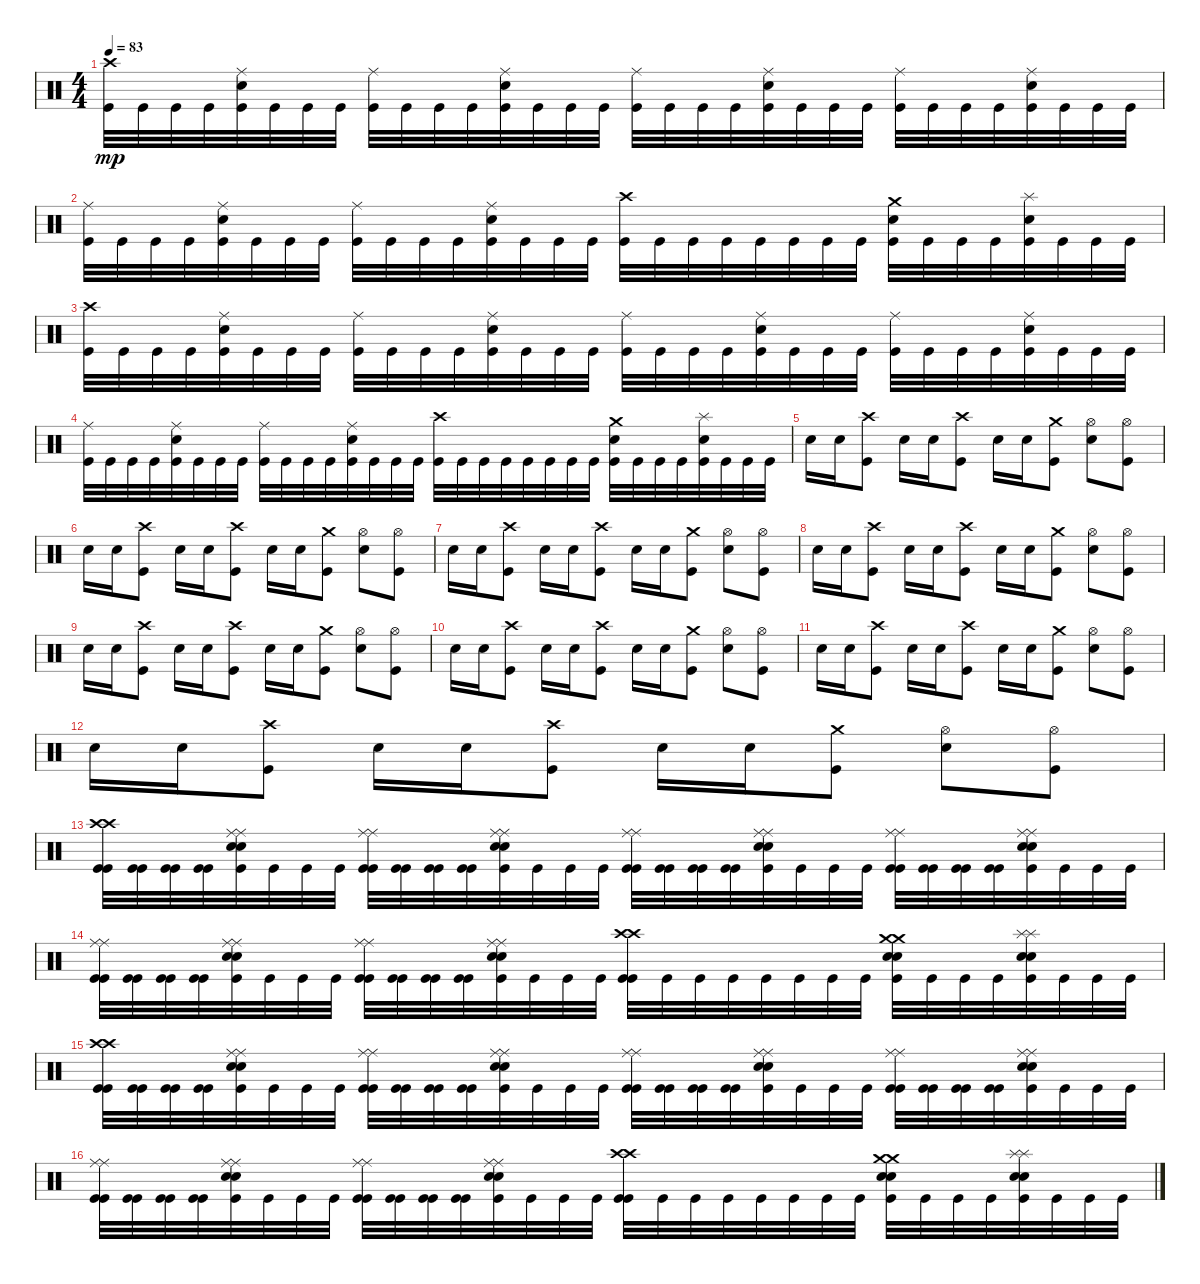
\track "" {instrument percussion}
\staff {score}
\articulation defaults
\ts (4 4)
\tempo 83
\clef neutral
\ks c
("Kick (hit)" "Crash high (hit)").32{dy mp} "Kick (hit)".32 "Kick (hit)".32 "Kick (hit)".32 ("Snare (hit) 2" "Ride (middle)" "Kick (hit)").32 "Kick (hit)".32 "Kick (hit)".32 "Kick (hit)".32 ("Kick (hit)" "Ride (middle)").32 "Kick (hit)".32 "Kick (hit)".32 "Kick (hit)".32 ("Snare (hit) 2" "Ride (middle)" "Kick (hit)").32 "Kick (hit)".32 "Kick (hit)".32 "Kick (hit)".32 ("Kick (hit)" "Ride (middle)").32 "Kick (hit)".32 "Kick (hit)".32 "Kick (hit)".32 ("Snare (hit) 2" "Ride (middle)" "Kick (hit)").32 "Kick (hit)".32 "Kick (hit)".32 "Kick (hit)".32 ("Kick (hit)" "Ride (middle)").32 "Kick (hit)".32 "Kick (hit)".32 "Kick (hit)".32 ("Snare (hit) 2" "Ride (middle)" "Kick (hit)").32 "Kick (hit)".32 "Kick (hit)".32 "Kick (hit)".32 |
("Kick (hit)" "Ride (middle)").32 "Kick (hit)".32 "Kick (hit)".32 "Kick (hit)".32 ("Snare (hit) 2" "Ride (middle)" "Kick (hit)").32 "Kick (hit)".32 "Kick (hit)".32 "Kick (hit)".32 ("Kick (hit)" "Ride (middle)").32 "Kick (hit)".32 "Kick (hit)".32 "Kick (hit)".32 ("Snare (hit) 2" "Ride (middle)" "Kick (hit)").32 "Kick (hit)".32 "Kick (hit)".32 "Kick (hit)".32 ("Crash high (hit)" "Kick (hit)").32 "Kick (hit)".32 "Kick (hit)".32 "Kick (hit)".32 "Kick (hit)".32 "Kick (hit)".32 "Kick (hit)".32 "Kick (hit)".32 ("Snare (hit) 2" "Crash medium (hit)" "Kick (hit)").32 "Kick (hit)".32 "Kick (hit)".32 "Kick (hit)".32 ("Snare (hit) 2" "Splash (hit)" "Kick (hit)").32 "Kick (hit)".32 "Kick (hit)".32 "Kick (hit)".32 |
("Kick (hit)" "Crash high (hit)").32 "Kick (hit)".32 "Kick (hit)".32 "Kick (hit)".32 ("Snare (hit) 2" "Ride (middle)" "Kick (hit)").32 "Kick (hit)".32 "Kick (hit)".32 "Kick (hit)".32 ("Kick (hit)" "Ride (middle)").32 "Kick (hit)".32 "Kick (hit)".32 "Kick (hit)".32 ("Snare (hit) 2" "Ride (middle)" "Kick (hit)").32 "Kick (hit)".32 "Kick (hit)".32 "Kick (hit)".32 ("Kick (hit)" "Ride (middle)").32 "Kick (hit)".32 "Kick (hit)".32 "Kick (hit)".32 ("Snare (hit) 2" "Ride (middle)" "Kick (hit)").32 "Kick (hit)".32 "Kick (hit)".32 "Kick (hit)".32 ("Kick (hit)" "Ride (middle)").32 "Kick (hit)".32 "Kick (hit)".32 "Kick (hit)".32 ("Snare (hit) 2" "Ride (middle)" "Kick (hit)").32 "Kick (hit)".32 "Kick (hit)".32 "Kick (hit)".32 |
("Kick (hit)" "Ride (middle)").32 "Kick (hit)".32 "Kick (hit)".32 "Kick (hit)".32 ("Snare (hit) 2" "Ride (middle)" "Kick (hit)").32 "Kick (hit)".32 "Kick (hit)".32 "Kick (hit)".32 ("Kick (hit)" "Ride (middle)").32 "Kick (hit)".32 "Kick (hit)".32 "Kick (hit)".32 ("Snare (hit) 2" "Ride (middle)" "Kick (hit)").32 "Kick (hit)".32 "Kick (hit)".32 "Kick (hit)".32 ("Crash high (hit)" "Kick (hit)").32 "Kick (hit)".32 "Kick (hit)".32 "Kick (hit)".32 "Kick (hit)".32 "Kick (hit)".32 "Kick (hit)".32 "Kick (hit)".32 ("Snare (hit) 2" "Crash medium (hit)" "Kick (hit)").32 "Kick (hit)".32 "Kick (hit)".32 "Kick (hit)".32 ("Snare (hit) 2" "Splash (hit)" "Kick (hit)").32 "Kick (hit)".32 "Kick (hit)".32 "Kick (hit)".32 |
"Snare (hit) 2".16 "Snare (hit) 2".16 ("Kick (hit)" "Crash high (hit)").8 "Snare (hit) 2".16 "Snare (hit) 2".16 ("Kick (hit)" "Crash high (hit)").8 "Snare (hit) 2".16 "Snare (hit) 2".16 ("Kick (hit)" "Crash medium (hit)").8 ("Hi-Hat (open)" "Snare (hit) 2").8 ("Hi-Hat (open)" "Kick (hit)").8 |
"Snare (hit) 2".16 "Snare (hit) 2".16 ("Kick (hit)" "Crash high (hit)").8 "Snare (hit) 2".16 "Snare (hit) 2".16 ("Kick (hit)" "Crash high (hit)").8 "Snare (hit) 2".16 "Snare (hit) 2".16 ("Kick (hit)" "Crash medium (hit)").8 ("Hi-Hat (open)" "Snare (hit) 2").8 ("Hi-Hat (open)" "Kick (hit)").8 |
"Snare (hit) 2".16 "Snare (hit) 2".16 ("Kick (hit)" "Crash high (hit)").8 "Snare (hit) 2".16 "Snare (hit) 2".16 ("Kick (hit)" "Crash high (hit)").8 "Snare (hit) 2".16 "Snare (hit) 2".16 ("Kick (hit)" "Crash medium (hit)").8 ("Hi-Hat (open)" "Snare (hit) 2").8 ("Hi-Hat (open)" "Kick (hit)").8 |
"Snare (hit) 2".16 "Snare (hit) 2".16 ("Kick (hit)" "Crash high (hit)").8 "Snare (hit) 2".16 "Snare (hit) 2".16 ("Kick (hit)" "Crash high (hit)").8 "Snare (hit) 2".16 "Snare (hit) 2".16 ("Kick (hit)" "Crash medium (hit)").8 ("Hi-Hat (open)" "Snare (hit) 2").8 ("Hi-Hat (open)" "Kick (hit)").8 |
"Snare (hit) 2".16 "Snare (hit) 2".16 ("Kick (hit)" "Crash high (hit)").8 "Snare (hit) 2".16 "Snare (hit) 2".16 ("Kick (hit)" "Crash high (hit)").8 "Snare (hit) 2".16 "Snare (hit) 2".16 ("Kick (hit)" "Crash medium (hit)").8 ("Hi-Hat (open)" "Snare (hit) 2").8 ("Hi-Hat (open)" "Kick (hit)").8 |
"Snare (hit) 2".16 "Snare (hit) 2".16 ("Kick (hit)" "Crash high (hit)").8 "Snare (hit) 2".16 "Snare (hit) 2".16 ("Kick (hit)" "Crash high (hit)").8 "Snare (hit) 2".16 "Snare (hit) 2".16 ("Kick (hit)" "Crash medium (hit)").8 ("Hi-Hat (open)" "Snare (hit) 2").8 ("Hi-Hat (open)" "Kick (hit)").8 |
"Snare (hit) 2".16 "Snare (hit) 2".16 ("Kick (hit)" "Crash high (hit)").8 "Snare (hit) 2".16 "Snare (hit) 2".16 ("Kick (hit)" "Crash high (hit)").8 "Snare (hit) 2".16 "Snare (hit) 2".16 ("Kick (hit)" "Crash medium (hit)").8 ("Hi-Hat (open)" "Snare (hit) 2").8 ("Hi-Hat (open)" "Kick (hit)").8 |
"Snare (hit) 2".16 "Snare (hit) 2".16 ("Kick (hit)" "Crash high (hit)").8 "Snare (hit) 2".16 "Snare (hit) 2".16 ("Kick (hit)" "Crash high (hit)").8 "Snare (hit) 2".16 "Snare (hit) 2".16 ("Kick (hit)" "Crash medium (hit)").8 ("Hi-Hat (open)" "Snare (hit) 2").8 ("Hi-Hat (open)" "Kick (hit)").8 |
("Kick (hit)" "Crash high (hit)" "Kick (hit)" "Crash high (hit)").32 ("Kick (hit)" "Kick (hit)").32 ("Kick (hit)" "Kick (hit)").32 ("Kick (hit)" "Kick (hit)").32 ("Snare (hit) 2" "Ride (middle)" "Snare (hit) 2" "Ride (middle)" "Kick (hit)").32 "Kick (hit)".32 "Kick (hit)".32 "Kick (hit)".32 ("Kick (hit)" "Ride (middle)" "Kick (hit)" "Ride (middle)").32 ("Kick (hit)" "Kick (hit)").32 ("Kick (hit)" "Kick (hit)").32 ("Kick (hit)" "Kick (hit)").32 ("Snare (hit) 2" "Ride (middle)" "Snare (hit) 2" "Ride (middle)" "Kick (hit)").32 "Kick (hit)".32 "Kick (hit)".32 "Kick (hit)".32 ("Kick (hit)" "Ride (middle)" "Kick (hit)" "Ride (middle)").32 ("Kick (hit)" "Kick (hit)").32 ("Kick (hit)" "Kick (hit)").32 ("Kick (hit)" "Kick (hit)").32 ("Snare (hit) 2" "Ride (middle)" "Snare (hit) 2" "Ride (middle)" "Kick (hit)").32 "Kick (hit)".32 "Kick (hit)".32 "Kick (hit)".32 ("Kick (hit)" "Ride (middle)" "Kick (hit)" "Ride (middle)").32 ("Kick (hit)" "Kick (hit)").32 ("Kick (hit)" "Kick (hit)").32 ("Kick (hit)" "Kick (hit)").32 ("Snare (hit) 2" "Ride (middle)" "Snare (hit) 2" "Ride (middle)" "Kick (hit)").32 "Kick (hit)".32 "Kick (hit)".32 "Kick (hit)".32 |
("Kick (hit)" "Ride (middle)" "Kick (hit)" "Ride (middle)").32 ("Kick (hit)" "Kick (hit)").32 ("Kick (hit)" "Kick (hit)").32 ("Kick (hit)" "Kick (hit)").32 ("Snare (hit) 2" "Ride (middle)" "Snare (hit) 2" "Ride (middle)" "Kick (hit)").32 "Kick (hit)".32 "Kick (hit)".32 "Kick (hit)".32 ("Kick (hit)" "Ride (middle)" "Kick (hit)" "Ride (middle)").32 ("Kick (hit)" "Kick (hit)").32 ("Kick (hit)" "Kick (hit)").32 ("Kick (hit)" "Kick (hit)").32 ("Snare (hit) 2" "Ride (middle)" "Snare (hit) 2" "Ride (middle)" "Kick (hit)").32 "Kick (hit)".32 "Kick (hit)".32 "Kick (hit)".32 ("Crash high (hit)" "Kick (hit)" "Crash high (hit)" "Kick (hit)").32 "Kick (hit)".32 "Kick (hit)".32 "Kick (hit)".32 "Kick (hit)".32 "Kick (hit)".32 "Kick (hit)".32 "Kick (hit)".32 ("Snare (hit) 2" "Crash medium (hit)" "Snare (hit) 2" "Crash medium (hit)" "Kick (hit)").32 "Kick (hit)".32 "Kick (hit)".32 "Kick (hit)".32 ("Snare (hit) 2" "Splash (hit)" "Snare (hit) 2" "Splash (hit)" "Kick (hit)").32 "Kick (hit)".32 "Kick (hit)".32 "Kick (hit)".32 |
("Kick (hit)" "Crash high (hit)" "Kick (hit)" "Crash high (hit)").32 ("Kick (hit)" "Kick (hit)").32 ("Kick (hit)" "Kick (hit)").32 ("Kick (hit)" "Kick (hit)").32 ("Snare (hit) 2" "Ride (middle)" "Snare (hit) 2" "Ride (middle)" "Kick (hit)").32 "Kick (hit)".32 "Kick (hit)".32 "Kick (hit)".32 ("Kick (hit)" "Ride (middle)" "Kick (hit)" "Ride (middle)").32 ("Kick (hit)" "Kick (hit)").32 ("Kick (hit)" "Kick (hit)").32 ("Kick (hit)" "Kick (hit)").32 ("Snare (hit) 2" "Ride (middle)" "Snare (hit) 2" "Ride (middle)" "Kick (hit)").32 "Kick (hit)".32 "Kick (hit)".32 "Kick (hit)".32 ("Kick (hit)" "Ride (middle)" "Kick (hit)" "Ride (middle)").32 ("Kick (hit)" "Kick (hit)").32 ("Kick (hit)" "Kick (hit)").32 ("Kick (hit)" "Kick (hit)").32 ("Snare (hit) 2" "Ride (middle)" "Snare (hit) 2" "Ride (middle)" "Kick (hit)").32 "Kick (hit)".32 "Kick (hit)".32 "Kick (hit)".32 ("Kick (hit)" "Ride (middle)" "Kick (hit)" "Ride (middle)").32 ("Kick (hit)" "Kick (hit)").32 ("Kick (hit)" "Kick (hit)").32 ("Kick (hit)" "Kick (hit)").32 ("Snare (hit) 2" "Ride (middle)" "Snare (hit) 2" "Ride (middle)" "Kick (hit)").32 "Kick (hit)".32 "Kick (hit)".32 "Kick (hit)".32 |
("Kick (hit)" "Ride (middle)" "Kick (hit)" "Ride (middle)").32 ("Kick (hit)" "Kick (hit)").32 ("Kick (hit)" "Kick (hit)").32 ("Kick (hit)" "Kick (hit)").32 ("Snare (hit) 2" "Ride (middle)" "Snare (hit) 2" "Ride (middle)" "Kick (hit)").32 "Kick (hit)".32 "Kick (hit)".32 "Kick (hit)".32 ("Kick (hit)" "Ride (middle)" "Kick (hit)" "Ride (middle)").32 ("Kick (hit)" "Kick (hit)").32 ("Kick (hit)" "Kick (hit)").32 ("Kick (hit)" "Kick (hit)").32 ("Snare (hit) 2" "Ride (middle)" "Snare (hit) 2" "Ride (middle)" "Kick (hit)").32 "Kick (hit)".32 "Kick (hit)".32 "Kick (hit)".32 ("Crash high (hit)" "Kick (hit)" "Crash high (hit)" "Kick (hit)").32 "Kick (hit)".32 "Kick (hit)".32 "Kick (hit)".32 "Kick (hit)".32 "Kick (hit)".32 "Kick (hit)".32 "Kick (hit)".32 ("Snare (hit) 2" "Crash medium (hit)" "Snare (hit) 2" "Crash medium (hit)" "Kick (hit)").32 "Kick (hit)".32 "Kick (hit)".32 "Kick (hit)".32 ("Snare (hit) 2" "Splash (hit)" "Snare (hit) 2" "Splash (hit)" "Kick (hit)").32 "Kick (hit)".32 "Kick (hit)".32 "Kick (hit)".32
